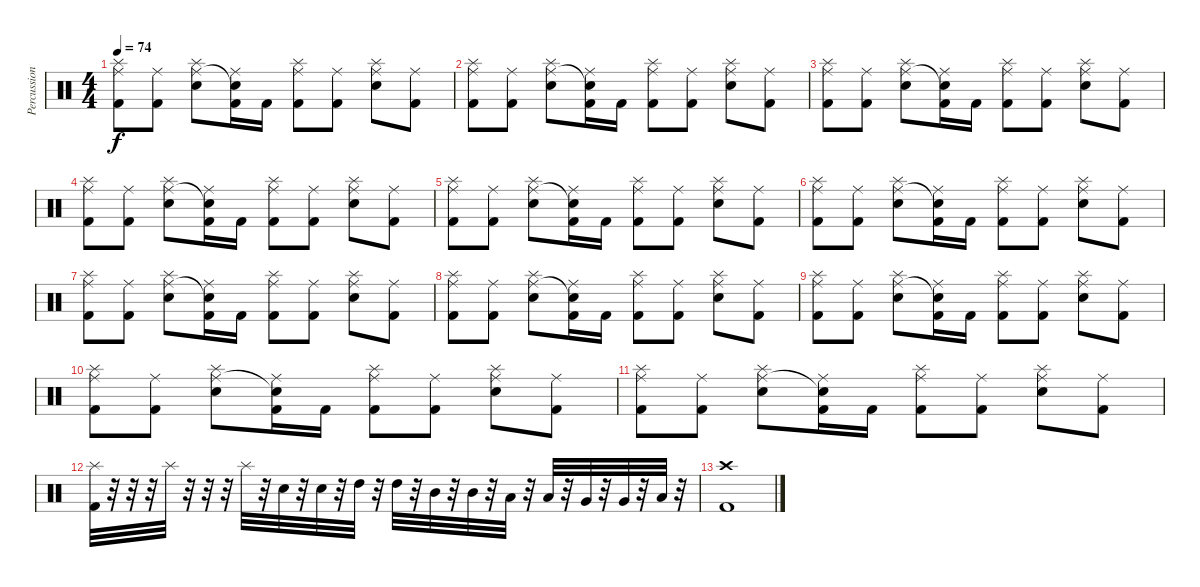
\track ("Percussion" "Percussion") {instrument percussion}
\staff {score}
\articulation defaults
\ts (4 4)
\tempo 74
\clef neutral
\ks c
("Splash (hit)" "Ride (middle)" "Kick (hit) 2").8{dy f} ("Ride (middle)" "Kick (hit) 2").8 ("Splash (hit)" "Ride (middle)" "Electric Snare (hit)").8 ("Ride (middle)" "Snare (hit)"{t} "Kick (hit) 2").16 "Kick (hit) 2".16 ("Splash (hit)" "Ride (middle)" "Kick (hit) 2").8 ("Ride (middle)" "Kick (hit) 2").8 ("Splash (hit)" "Ride (middle)" "Electric Snare (hit)").8 ("Ride (middle)" "Kick (hit) 2").8 |
("Splash (hit)" "Ride (middle)" "Kick (hit) 2").8 ("Ride (middle)" "Kick (hit) 2").8 ("Splash (hit)" "Ride (middle)" "Electric Snare (hit)").8 ("Ride (middle)" "Snare (hit)"{t} "Kick (hit) 2").16 "Kick (hit) 2".16 ("Splash (hit)" "Ride (middle)" "Kick (hit) 2").8 ("Ride (middle)" "Kick (hit) 2").8 ("Splash (hit)" "Ride (middle)" "Electric Snare (hit)").8 ("Ride (middle)" "Kick (hit) 2").8 |
("Splash (hit)" "Ride (middle)" "Kick (hit) 2").8 ("Ride (middle)" "Kick (hit) 2").8 ("Splash (hit)" "Ride (middle)" "Electric Snare (hit)").8 ("Ride (middle)" "Snare (hit)"{t} "Kick (hit) 2").16 "Kick (hit) 2".16 ("Splash (hit)" "Ride (middle)" "Kick (hit) 2").8 ("Ride (middle)" "Kick (hit) 2").8 ("Splash (hit)" "Ride (middle)" "Electric Snare (hit)").8 ("Ride (middle)" "Kick (hit) 2").8 |
("Splash (hit)" "Ride (middle)" "Kick (hit) 2").8 ("Ride (middle)" "Kick (hit) 2").8 ("Splash (hit)" "Ride (middle)" "Electric Snare (hit)").8 ("Ride (middle)" "Snare (hit)"{t} "Kick (hit) 2").16 "Kick (hit) 2".16 ("Splash (hit)" "Ride (middle)" "Kick (hit) 2").8 ("Ride (middle)" "Kick (hit) 2").8 ("Splash (hit)" "Ride (middle)" "Electric Snare (hit)").8 ("Ride (middle)" "Kick (hit) 2").8 |
("Splash (hit)" "Ride (middle)" "Kick (hit) 2").8 ("Ride (middle)" "Kick (hit) 2").8 ("Splash (hit)" "Ride (middle)" "Electric Snare (hit)").8 ("Ride (middle)" "Snare (hit)"{t} "Kick (hit) 2").16 "Kick (hit) 2".16 ("Splash (hit)" "Ride (middle)" "Kick (hit) 2").8 ("Ride (middle)" "Kick (hit) 2").8 ("Splash (hit)" "Ride (middle)" "Electric Snare (hit)").8 ("Ride (middle)" "Kick (hit) 2").8 |
("Splash (hit)" "Ride (middle)" "Kick (hit) 2").8 ("Ride (middle)" "Kick (hit) 2").8 ("Splash (hit)" "Ride (middle)" "Electric Snare (hit)").8 ("Ride (middle)" "Snare (hit)"{t} "Kick (hit) 2").16 "Kick (hit) 2".16 ("Splash (hit)" "Ride (middle)" "Kick (hit) 2").8 ("Ride (middle)" "Kick (hit) 2").8 ("Splash (hit)" "Ride (middle)" "Electric Snare (hit)").8 ("Ride (middle)" "Kick (hit) 2").8 |
("Splash (hit)" "Ride (middle)" "Kick (hit) 2").8 ("Ride (middle)" "Kick (hit) 2").8 ("Splash (hit)" "Ride (middle)" "Electric Snare (hit)").8 ("Ride (middle)" "Snare (hit)"{t} "Kick (hit) 2").16 "Kick (hit) 2".16 ("Splash (hit)" "Ride (middle)" "Kick (hit) 2").8 ("Ride (middle)" "Kick (hit) 2").8 ("Splash (hit)" "Ride (middle)" "Electric Snare (hit)").8 ("Ride (middle)" "Kick (hit) 2").8 |
("Splash (hit)" "Ride (middle)" "Kick (hit) 2").8 ("Ride (middle)" "Kick (hit) 2").8 ("Splash (hit)" "Ride (middle)" "Electric Snare (hit)").8 ("Ride (middle)" "Snare (hit)"{t} "Kick (hit) 2").16 "Kick (hit) 2".16 ("Splash (hit)" "Ride (middle)" "Kick (hit) 2").8 ("Ride (middle)" "Kick (hit) 2").8 ("Splash (hit)" "Ride (middle)" "Electric Snare (hit)").8 ("Ride (middle)" "Kick (hit) 2").8 |
("Splash (hit)" "Ride (middle)" "Kick (hit) 2").8 ("Ride (middle)" "Kick (hit) 2").8 ("Splash (hit)" "Ride (middle)" "Electric Snare (hit)").8 ("Ride (middle)" "Snare (hit)"{t} "Kick (hit) 2").16 "Kick (hit) 2".16 ("Splash (hit)" "Ride (middle)" "Kick (hit) 2").8 ("Ride (middle)" "Kick (hit) 2").8 ("Splash (hit)" "Ride (middle)" "Electric Snare (hit)").8 ("Ride (middle)" "Kick (hit) 2").8 |
("Splash (hit)" "Ride (middle)" "Kick (hit) 2").8 ("Ride (middle)" "Kick (hit) 2").8 ("Splash (hit)" "Ride (middle)" "Electric Snare (hit)").8 ("Ride (middle)" "Snare (hit)"{t} "Kick (hit) 2").16 "Kick (hit) 2".16 ("Splash (hit)" "Ride (middle)" "Kick (hit) 2").8 ("Ride (middle)" "Kick (hit) 2").8 ("Splash (hit)" "Ride (middle)" "Electric Snare (hit)").8 ("Ride (middle)" "Kick (hit) 2").8 |
("Splash (hit)" "Ride (middle)" "Kick (hit) 2").8 ("Ride (middle)" "Kick (hit) 2").8 ("Splash (hit)" "Ride (middle)" "Electric Snare (hit)").8 ("Ride (middle)" "Snare (hit)"{t} "Kick (hit) 2").16 "Kick (hit) 2".16 ("Splash (hit)" "Ride (middle)" "Kick (hit) 2").8 ("Ride (middle)" "Kick (hit) 2").8 ("Splash (hit)" "Ride (middle)" "Electric Snare (hit)").8 ("Ride (middle)" "Kick (hit) 2").8 |
("Splash (hit)" "Kick (hit) 2").32 r.32 r.32 r.32 "Splash (hit)".32 r.32 r.32 r.32 "Splash (hit)".32 r.32 "Electric Snare (hit)".32 r.32 "Electric Snare (hit)".32 r.32 "High Tom (hit)".32 r.32 "High Tom (hit)".32 r.32 "Mid Tom (hit)".32 r.32 "Mid Tom (hit)".32 r.32 "Low Tom (hit)".32 r.32 "Low Tom (hit)".32 r.32 "Very Low Tom (hit)".32 r.32 "Very Low Tom (hit)".32 r.32 "Low Floor Tom (hit)".32 r.32 |
("Crash high (hit)" "Kick (hit) 2").1
